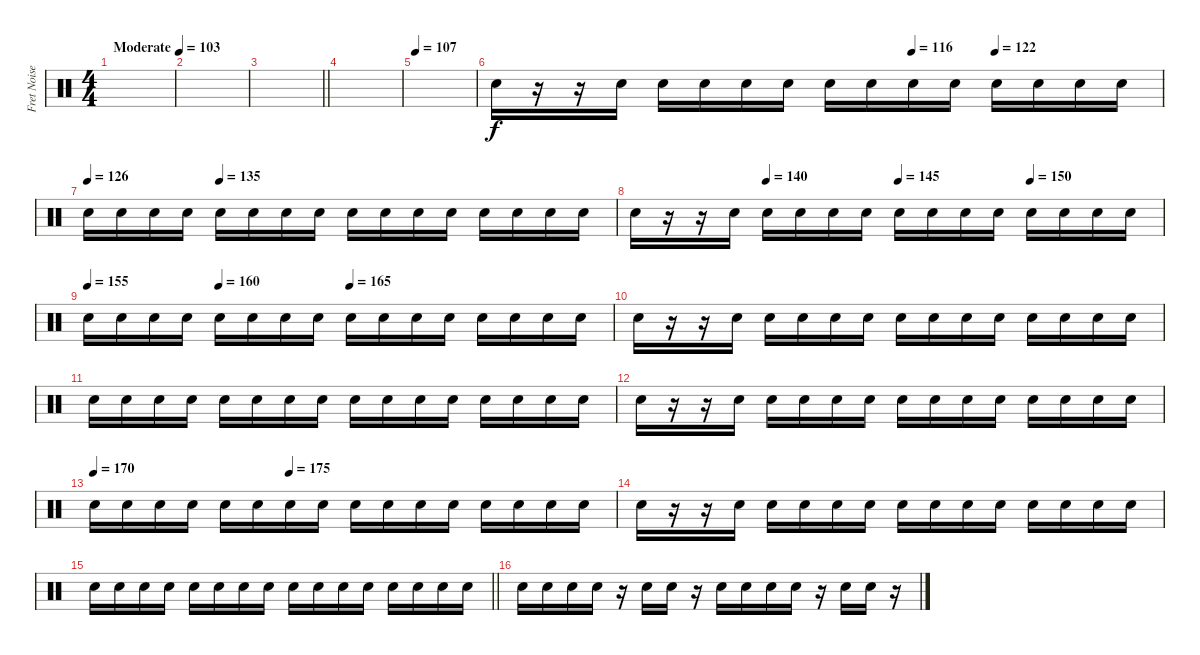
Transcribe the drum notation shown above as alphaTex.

\track ("Fret Noise / Percussion(corpus)" "Fret Noise") {instrument percussion}
\staff {score}
\articulation defaults
\ts (4 4)
\tempo (103 "Moderate")
\clef neutral
\ks c
|
|
\barLineRight lightlight
|
|
\tempo 107
|
\tempo (116 0.625)
\tempo (122 0.75)
"Snare (hit) 2".16 r.16 r.16 "Snare (hit) 2".16 "Snare (hit) 2".16 "Snare (hit) 2".16 "Snare (hit) 2".16 "Snare (hit) 2".16 "Snare (hit) 2".16 "Snare (hit) 2".16 "Snare (hit) 2".16 "Snare (hit) 2".16 "Snare (hit) 2".16 "Snare (hit) 2".16 "Snare (hit) 2".16 "Snare (hit) 2".16 |
\tempo 126
\tempo (135 0.25)
"Snare (hit) 2".16 "Snare (hit) 2".16 "Snare (hit) 2".16 "Snare (hit) 2".16 "Snare (hit) 2".16 "Snare (hit) 2".16 "Snare (hit) 2".16 "Snare (hit) 2".16 "Snare (hit) 2".16 "Snare (hit) 2".16 "Snare (hit) 2".16 "Snare (hit) 2".16 "Snare (hit) 2".16 "Snare (hit) 2".16 "Snare (hit) 2".16 "Snare (hit) 2".16 |
\tempo (140 0.25)
\tempo (145 0.5)
\tempo (150 0.75)
"Snare (hit) 2".16 r.16 r.16 "Snare (hit) 2".16 "Snare (hit) 2".16 "Snare (hit) 2".16 "Snare (hit) 2".16 "Snare (hit) 2".16 "Snare (hit) 2".16 "Snare (hit) 2".16 "Snare (hit) 2".16 "Snare (hit) 2".16 "Snare (hit) 2".16 "Snare (hit) 2".16 "Snare (hit) 2".16 "Snare (hit) 2".16 |
\tempo 155
\tempo (160 0.25)
\tempo (165 0.5)
"Snare (hit) 2".16 "Snare (hit) 2".16 "Snare (hit) 2".16 "Snare (hit) 2".16 "Snare (hit) 2".16 "Snare (hit) 2".16 "Snare (hit) 2".16 "Snare (hit) 2".16 "Snare (hit) 2".16 "Snare (hit) 2".16 "Snare (hit) 2".16 "Snare (hit) 2".16 "Snare (hit) 2".16 "Snare (hit) 2".16 "Snare (hit) 2".16 "Snare (hit) 2".16 |
"Snare (hit) 2".16 r.16 r.16 "Snare (hit) 2".16 "Snare (hit) 2".16 "Snare (hit) 2".16 "Snare (hit) 2".16 "Snare (hit) 2".16 "Snare (hit) 2".16 "Snare (hit) 2".16 "Snare (hit) 2".16 "Snare (hit) 2".16 "Snare (hit) 2".16 "Snare (hit) 2".16 "Snare (hit) 2".16 "Snare (hit) 2".16 |
"Snare (hit) 2".16 "Snare (hit) 2".16 "Snare (hit) 2".16 "Snare (hit) 2".16 "Snare (hit) 2".16 "Snare (hit) 2".16 "Snare (hit) 2".16 "Snare (hit) 2".16 "Snare (hit) 2".16 "Snare (hit) 2".16 "Snare (hit) 2".16 "Snare (hit) 2".16 "Snare (hit) 2".16 "Snare (hit) 2".16 "Snare (hit) 2".16 "Snare (hit) 2".16 |
"Snare (hit) 2".16 r.16 r.16 "Snare (hit) 2".16 "Snare (hit) 2".16 "Snare (hit) 2".16 "Snare (hit) 2".16 "Snare (hit) 2".16 "Snare (hit) 2".16 "Snare (hit) 2".16 "Snare (hit) 2".16 "Snare (hit) 2".16 "Snare (hit) 2".16 "Snare (hit) 2".16 "Snare (hit) 2".16 "Snare (hit) 2".16 |
\tempo 170
\tempo (175 0.375)
"Snare (hit) 2".16 "Snare (hit) 2".16 "Snare (hit) 2".16 "Snare (hit) 2".16 "Snare (hit) 2".16 "Snare (hit) 2".16 "Snare (hit) 2".16 "Snare (hit) 2".16 "Snare (hit) 2".16 "Snare (hit) 2".16 "Snare (hit) 2".16 "Snare (hit) 2".16 "Snare (hit) 2".16 "Snare (hit) 2".16 "Snare (hit) 2".16 "Snare (hit) 2".16 |
"Snare (hit) 2".16 r.16 r.16 "Snare (hit) 2".16 "Snare (hit) 2".16 "Snare (hit) 2".16 "Snare (hit) 2".16 "Snare (hit) 2".16 "Snare (hit) 2".16 "Snare (hit) 2".16 "Snare (hit) 2".16 "Snare (hit) 2".16 "Snare (hit) 2".16 "Snare (hit) 2".16 "Snare (hit) 2".16 "Snare (hit) 2".16 |
\barLineRight lightlight "Snare (hit) 2".16 "Snare (hit) 2".16 "Snare (hit) 2".16 "Snare (hit) 2".16 "Snare (hit) 2".16 "Snare (hit) 2".16 "Snare (hit) 2".16 "Snare (hit) 2".16 "Snare (hit) 2".16 "Snare (hit) 2".16 "Snare (hit) 2".16 "Snare (hit) 2".16 "Snare (hit) 2".16 "Snare (hit) 2".16 "Snare (hit) 2".16 "Snare (hit) 2".16
|
"Snare (hit) 2".16 "Snare (hit) 2".16 "Snare (hit) 2".16 "Snare (hit) 2".16 r.16 "Snare (hit) 2".16 "Snare (hit) 2".16 r.16 "Snare (hit) 2".16 "Snare (hit) 2".16 "Snare (hit) 2".16 "Snare (hit) 2".16 r.16 "Snare (hit) 2".16 "Snare (hit) 2".16 r.16
